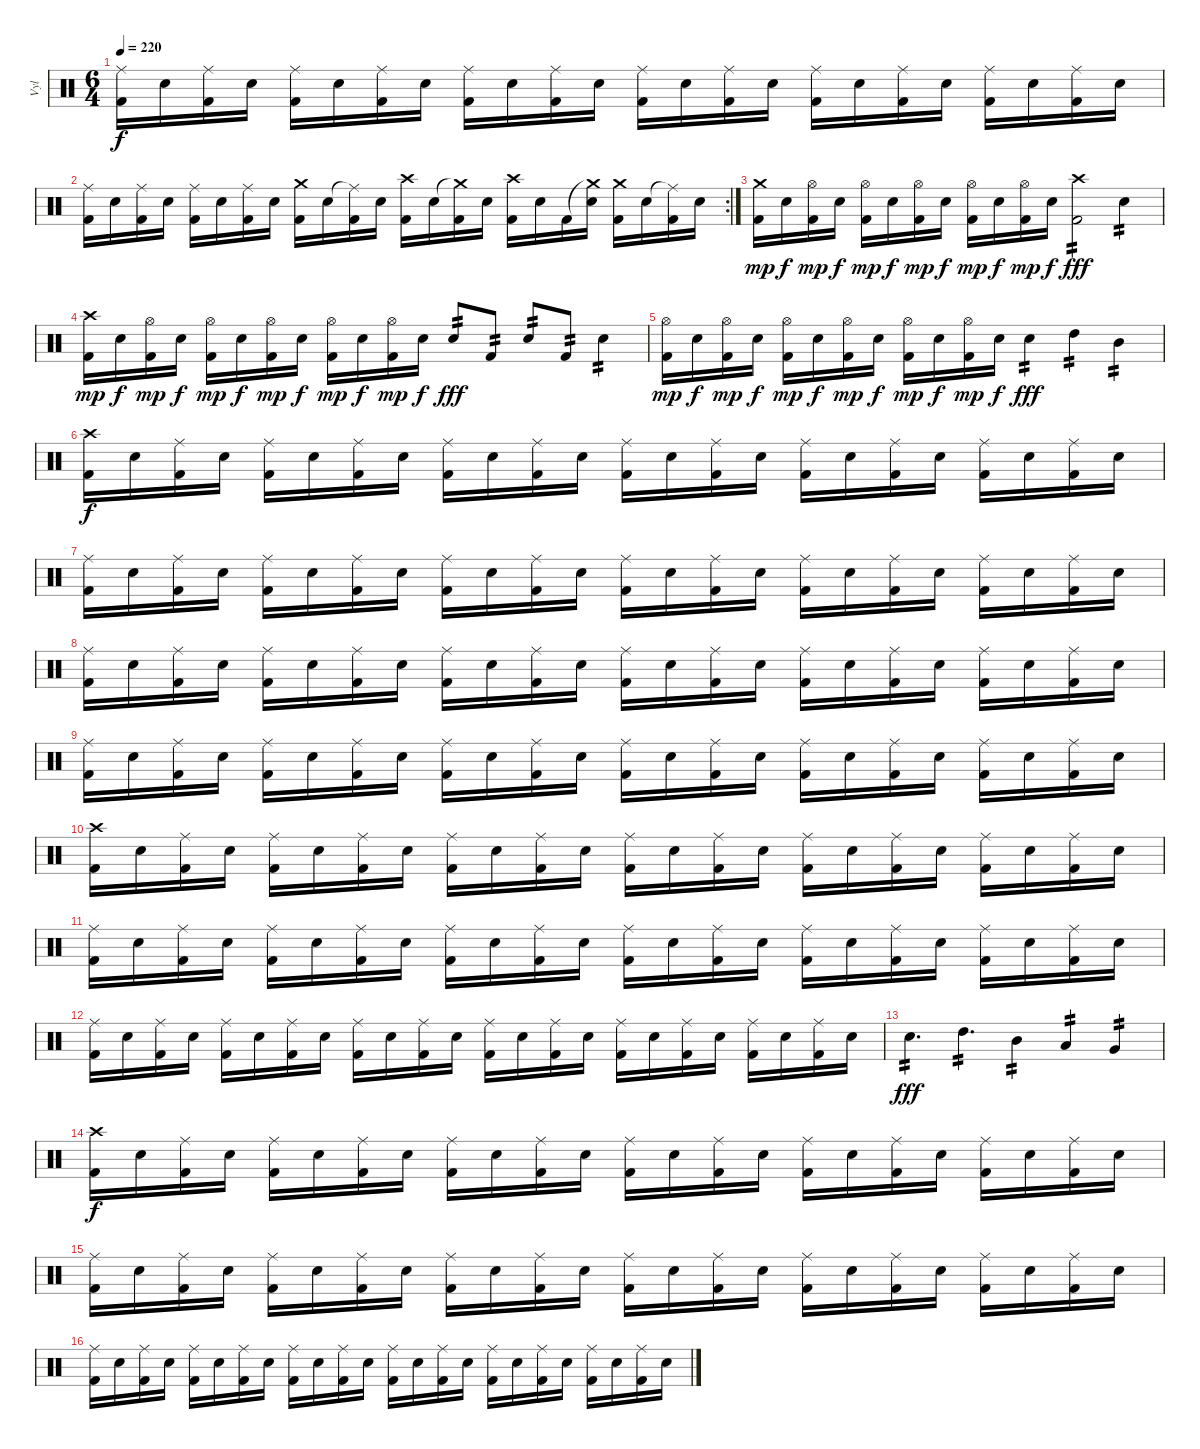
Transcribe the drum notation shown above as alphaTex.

\track ("Vyl" "Vyl") {instrument percussion}
\staff {score}
\articulation defaults
\ts (6 4)
\tempo 220
\clef neutral
\ks c
("Ride (middle)" "Kick (hit) 2").16{dy f} "Snare (hit) 2".16 ("Ride (middle)" "Kick (hit) 2").16 "Snare (hit) 2".16 ("Ride (middle)" "Kick (hit) 2").16 "Snare (hit) 2".16 ("Ride (middle)" "Kick (hit) 2").16 "Snare (hit) 2".16 ("Ride (middle)" "Kick (hit) 2").16 "Snare (hit) 2".16 ("Ride (middle)" "Kick (hit) 2").16 "Snare (hit) 2".16 ("Ride (middle)" "Kick (hit) 2").16 "Snare (hit) 2".16 ("Ride (middle)" "Kick (hit) 2").16 "Snare (hit) 2".16 ("Ride (middle)" "Kick (hit) 2").16 "Snare (hit) 2".16 ("Ride (middle)" "Kick (hit) 2").16 "Snare (hit) 2".16 ("Ride (middle)" "Kick (hit) 2").16 "Snare (hit) 2".16 ("Ride (middle)" "Kick (hit) 2").16 "Snare (hit) 2".16 |
\rc 2
("Ride (middle)" "Kick (hit) 2").16 "Snare (hit) 2".16 ("Ride (middle)" "Kick (hit) 2").16 "Snare (hit) 2".16 ("Ride (middle)" "Kick (hit) 2").16 "Snare (hit) 2".16 ("Ride (middle)" "Kick (hit) 2").16 "Snare (hit) 2".16 ("Crash medium (hit)" "Kick (hit) 2").16 "Snare (hit) 2".16 ("Ride (middle)"{t} "Kick (hit) 2").16 "Snare (hit) 2".16 ("Crash high (hit)" "Kick (hit) 2").16 "Snare (hit) 2".16 ("Crash medium (hit)"{t} "Kick (hit) 2").16 "Snare (hit) 2".16 ("Crash high (hit)" "Kick (hit) 2").16 "Snare (hit) 2".16 "Kick (hit) 2".16 ("Crash medium (hit)"{t} "Snare (hit) 2").16 ("Crash medium (hit)" "Kick (hit) 2").16 "Snare (hit) 2".16 ("Ride (middle)"{t} "Kick (hit) 2").16 "Snare (hit) 2".16 |
("Crash medium (hit)" "Kick (hit) 2").16{dy mp} "Snare (hit) 2".16{dy f} ("Hi-Hat (open)" "Kick (hit) 2").16{dy mp} "Snare (hit) 2".16{dy f} ("Hi-Hat (open)" "Kick (hit) 2").16{dy mp} "Snare (hit) 2".16{dy f} ("Hi-Hat (open)" "Kick (hit) 2").16{dy mp} "Snare (hit) 2".16{dy f} ("Hi-Hat (open)" "Kick (hit) 2").16{dy mp} "Snare (hit) 2".16{dy f} ("Hi-Hat (open)" "Kick (hit) 2").16{dy mp} "Snare (hit) 2".16{dy f} ("Crash high (hit)" "Kick (hit) 2").2{tp 2 dy fff} "Snare (hit) 2".4{tp 2} |
("Crash high (hit)" "Kick (hit) 2").16{dy mp} "Snare (hit) 2".16{dy f} ("Hi-Hat (open)" "Kick (hit) 2").16{dy mp} "Snare (hit) 2".16{dy f} ("Hi-Hat (open)" "Kick (hit) 2").16{dy mp} "Snare (hit) 2".16{dy f} ("Hi-Hat (open)" "Kick (hit) 2").16{dy mp} "Snare (hit) 2".16{dy f} ("Hi-Hat (open)" "Kick (hit) 2").16{dy mp} "Snare (hit) 2".16{dy f} ("Hi-Hat (open)" "Kick (hit) 2").16{dy mp} "Snare (hit) 2".16{dy f} "Snare (hit) 2".8{tp 2 dy fff} "Kick (hit) 2".8{tp 2} "Snare (hit) 2".8{tp 2} "Kick (hit) 2".8{tp 2} "Snare (hit) 2".4{tp 2} |
("Hi-Hat (open)" "Kick (hit) 2").16{dy mp} "Snare (hit) 2".16{dy f} ("Hi-Hat (open)" "Kick (hit) 2").16{dy mp} "Snare (hit) 2".16{dy f} ("Hi-Hat (open)" "Kick (hit) 2").16{dy mp} "Snare (hit) 2".16{dy f} ("Hi-Hat (open)" "Kick (hit) 2").16{dy mp} "Snare (hit) 2".16{dy f} ("Hi-Hat (open)" "Kick (hit) 2").16{dy mp} "Snare (hit) 2".16{dy f} ("Hi-Hat (open)" "Kick (hit) 2").16{dy mp} "Snare (hit) 2".16{dy f} "Snare (hit) 2".4{tp 2 dy fff} "High Tom (hit)".4{tp 2} "Mid Tom (hit)".4{tp 2} |
("Crash high (hit)" "Kick (hit) 2").16{dy f} "Snare (hit) 2".16 ("Ride (middle)" "Kick (hit) 2").16 "Snare (hit) 2".16 ("Ride (middle)" "Kick (hit) 2").16 "Snare (hit) 2".16 ("Ride (middle)" "Kick (hit) 2").16 "Snare (hit) 2".16 ("Ride (middle)" "Kick (hit) 2").16 "Snare (hit) 2".16 ("Ride (middle)" "Kick (hit) 2").16 "Snare (hit) 2".16 ("Ride (middle)" "Kick (hit) 2").16 "Snare (hit) 2".16 ("Ride (middle)" "Kick (hit) 2").16 "Snare (hit) 2".16 ("Ride (middle)" "Kick (hit) 2").16 "Snare (hit) 2".16 ("Ride (middle)" "Kick (hit) 2").16 "Snare (hit) 2".16 ("Ride (middle)" "Kick (hit) 2").16 "Snare (hit) 2".16 ("Ride (middle)" "Kick (hit) 2").16 "Snare (hit) 2".16 |
("Ride (middle)" "Kick (hit) 2").16 "Snare (hit) 2".16 ("Ride (middle)" "Kick (hit) 2").16 "Snare (hit) 2".16 ("Ride (middle)" "Kick (hit) 2").16 "Snare (hit) 2".16 ("Ride (middle)" "Kick (hit) 2").16 "Snare (hit) 2".16 ("Ride (middle)" "Kick (hit) 2").16 "Snare (hit) 2".16 ("Ride (middle)" "Kick (hit) 2").16 "Snare (hit) 2".16 ("Ride (middle)" "Kick (hit) 2").16 "Snare (hit) 2".16 ("Ride (middle)" "Kick (hit) 2").16 "Snare (hit) 2".16 ("Ride (middle)" "Kick (hit) 2").16 "Snare (hit) 2".16 ("Ride (middle)" "Kick (hit) 2").16 "Snare (hit) 2".16 ("Ride (middle)" "Kick (hit) 2").16 "Snare (hit) 2".16 ("Ride (middle)" "Kick (hit) 2").16 "Snare (hit) 2".16 |
("Ride (middle)" "Kick (hit) 2").16 "Snare (hit) 2".16 ("Ride (middle)" "Kick (hit) 2").16 "Snare (hit) 2".16 ("Ride (middle)" "Kick (hit) 2").16 "Snare (hit) 2".16 ("Ride (middle)" "Kick (hit) 2").16 "Snare (hit) 2".16 ("Ride (middle)" "Kick (hit) 2").16 "Snare (hit) 2".16 ("Ride (middle)" "Kick (hit) 2").16 "Snare (hit) 2".16 ("Ride (middle)" "Kick (hit) 2").16 "Snare (hit) 2".16 ("Ride (middle)" "Kick (hit) 2").16 "Snare (hit) 2".16 ("Ride (middle)" "Kick (hit) 2").16 "Snare (hit) 2".16 ("Ride (middle)" "Kick (hit) 2").16 "Snare (hit) 2".16 ("Ride (middle)" "Kick (hit) 2").16 "Snare (hit) 2".16 ("Ride (middle)" "Kick (hit) 2").16 "Snare (hit) 2".16 |
("Ride (middle)" "Kick (hit) 2").16 "Snare (hit) 2".16 ("Ride (middle)" "Kick (hit) 2").16 "Snare (hit) 2".16 ("Ride (middle)" "Kick (hit) 2").16 "Snare (hit) 2".16 ("Ride (middle)" "Kick (hit) 2").16 "Snare (hit) 2".16 ("Ride (middle)" "Kick (hit) 2").16 "Snare (hit) 2".16 ("Ride (middle)" "Kick (hit) 2").16 "Snare (hit) 2".16 ("Ride (middle)" "Kick (hit) 2").16 "Snare (hit) 2".16 ("Ride (middle)" "Kick (hit) 2").16 "Snare (hit) 2".16 ("Ride (middle)" "Kick (hit) 2").16 "Snare (hit) 2".16 ("Ride (middle)" "Kick (hit) 2").16 "Snare (hit) 2".16 ("Ride (middle)" "Kick (hit) 2").16 "Snare (hit) 2".16 ("Ride (middle)" "Kick (hit) 2").16 "Snare (hit) 2".16 |
("Crash high (hit)" "Kick (hit) 2").16 "Snare (hit) 2".16 ("Ride (middle)" "Kick (hit) 2").16 "Snare (hit) 2".16 ("Ride (middle)" "Kick (hit) 2").16 "Snare (hit) 2".16 ("Ride (middle)" "Kick (hit) 2").16 "Snare (hit) 2".16 ("Ride (middle)" "Kick (hit) 2").16 "Snare (hit) 2".16 ("Ride (middle)" "Kick (hit) 2").16 "Snare (hit) 2".16 ("Ride (middle)" "Kick (hit) 2").16 "Snare (hit) 2".16 ("Ride (middle)" "Kick (hit) 2").16 "Snare (hit) 2".16 ("Ride (middle)" "Kick (hit) 2").16 "Snare (hit) 2".16 ("Ride (middle)" "Kick (hit) 2").16 "Snare (hit) 2".16 ("Ride (middle)" "Kick (hit) 2").16 "Snare (hit) 2".16 ("Ride (middle)" "Kick (hit) 2").16 "Snare (hit) 2".16 |
("Ride (middle)" "Kick (hit) 2").16 "Snare (hit) 2".16 ("Ride (middle)" "Kick (hit) 2").16 "Snare (hit) 2".16 ("Ride (middle)" "Kick (hit) 2").16 "Snare (hit) 2".16 ("Ride (middle)" "Kick (hit) 2").16 "Snare (hit) 2".16 ("Ride (middle)" "Kick (hit) 2").16 "Snare (hit) 2".16 ("Ride (middle)" "Kick (hit) 2").16 "Snare (hit) 2".16 ("Ride (middle)" "Kick (hit) 2").16 "Snare (hit) 2".16 ("Ride (middle)" "Kick (hit) 2").16 "Snare (hit) 2".16 ("Ride (middle)" "Kick (hit) 2").16 "Snare (hit) 2".16 ("Ride (middle)" "Kick (hit) 2").16 "Snare (hit) 2".16 ("Ride (middle)" "Kick (hit) 2").16 "Snare (hit) 2".16 ("Ride (middle)" "Kick (hit) 2").16 "Snare (hit) 2".16 |
("Ride (middle)" "Kick (hit) 2").16 "Snare (hit) 2".16 ("Ride (middle)" "Kick (hit) 2").16 "Snare (hit) 2".16 ("Ride (middle)" "Kick (hit) 2").16 "Snare (hit) 2".16 ("Ride (middle)" "Kick (hit) 2").16 "Snare (hit) 2".16 ("Ride (middle)" "Kick (hit) 2").16 "Snare (hit) 2".16 ("Ride (middle)" "Kick (hit) 2").16 "Snare (hit) 2".16 ("Ride (middle)" "Kick (hit) 2").16 "Snare (hit) 2".16 ("Ride (middle)" "Kick (hit) 2").16 "Snare (hit) 2".16 ("Ride (middle)" "Kick (hit) 2").16 "Snare (hit) 2".16 ("Ride (middle)" "Kick (hit) 2").16 "Snare (hit) 2".16 ("Ride (middle)" "Kick (hit) 2").16 "Snare (hit) 2".16 ("Ride (middle)" "Kick (hit) 2").16 "Snare (hit) 2".16 |
"Snare (hit) 2".4{d tp 2 dy fff} "High Tom (hit)".4{d tp 2} "Mid Tom (hit)".4{tp 2} "Low Tom (hit)".4{tp 2} "Very Low Tom (hit)".4{tp 2} |
("Crash high (hit)" "Kick (hit) 2").16{dy f} "Snare (hit) 2".16 ("Ride (middle)" "Kick (hit) 2").16 "Snare (hit) 2".16 ("Ride (middle)" "Kick (hit) 2").16 "Snare (hit) 2".16 ("Ride (middle)" "Kick (hit) 2").16 "Snare (hit) 2".16 ("Ride (middle)" "Kick (hit) 2").16 "Snare (hit) 2".16 ("Ride (middle)" "Kick (hit) 2").16 "Snare (hit) 2".16 ("Ride (middle)" "Kick (hit) 2").16 "Snare (hit) 2".16 ("Ride (middle)" "Kick (hit) 2").16 "Snare (hit) 2".16 ("Ride (middle)" "Kick (hit) 2").16 "Snare (hit) 2".16 ("Ride (middle)" "Kick (hit) 2").16 "Snare (hit) 2".16 ("Ride (middle)" "Kick (hit) 2").16 "Snare (hit) 2".16 ("Ride (middle)" "Kick (hit) 2").16 "Snare (hit) 2".16 |
("Ride (middle)" "Kick (hit) 2").16 "Snare (hit) 2".16 ("Ride (middle)" "Kick (hit) 2").16 "Snare (hit) 2".16 ("Ride (middle)" "Kick (hit) 2").16 "Snare (hit) 2".16 ("Ride (middle)" "Kick (hit) 2").16 "Snare (hit) 2".16 ("Ride (middle)" "Kick (hit) 2").16 "Snare (hit) 2".16 ("Ride (middle)" "Kick (hit) 2").16 "Snare (hit) 2".16 ("Ride (middle)" "Kick (hit) 2").16 "Snare (hit) 2".16 ("Ride (middle)" "Kick (hit) 2").16 "Snare (hit) 2".16 ("Ride (middle)" "Kick (hit) 2").16 "Snare (hit) 2".16 ("Ride (middle)" "Kick (hit) 2").16 "Snare (hit) 2".16 ("Ride (middle)" "Kick (hit) 2").16 "Snare (hit) 2".16 ("Ride (middle)" "Kick (hit) 2").16 "Snare (hit) 2".16 |
("Ride (middle)" "Kick (hit) 2").16 "Snare (hit) 2".16 ("Ride (middle)" "Kick (hit) 2").16 "Snare (hit) 2".16 ("Ride (middle)" "Kick (hit) 2").16 "Snare (hit) 2".16 ("Ride (middle)" "Kick (hit) 2").16 "Snare (hit) 2".16 ("Ride (middle)" "Kick (hit) 2").16 "Snare (hit) 2".16 ("Ride (middle)" "Kick (hit) 2").16 "Snare (hit) 2".16 ("Ride (middle)" "Kick (hit) 2").16 "Snare (hit) 2".16 ("Ride (middle)" "Kick (hit) 2").16 "Snare (hit) 2".16 ("Ride (middle)" "Kick (hit) 2").16 "Snare (hit) 2".16 ("Ride (middle)" "Kick (hit) 2").16 "Snare (hit) 2".16 ("Ride (middle)" "Kick (hit) 2").16 "Snare (hit) 2".16 ("Ride (middle)" "Kick (hit) 2").16 "Snare (hit) 2".16
